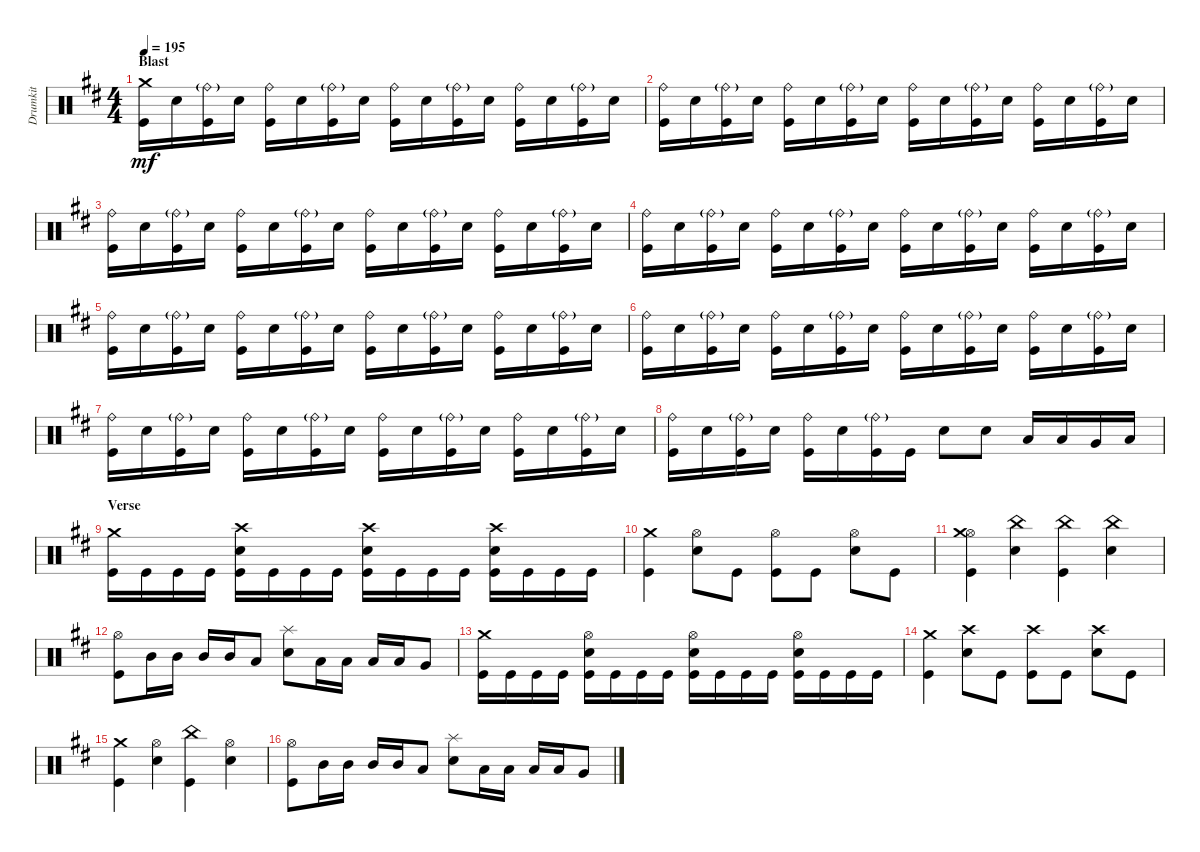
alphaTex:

\track ("Drumkit" "Drumkit") {instrument percussion}
\staff {score}
\articulation defaults
\ts (4 4)
\section ("" "Blast")
\tempo 195
\clef neutral
\ks bminor
("Kick (hit)" "Crash medium (hit)").16{dy mf} "Snare (hit) 2".16 ("Kick (hit)" "Ride (bell)"{g}).16 "Snare (hit) 2".16 ("Kick (hit)" "Ride (bell)").16 "Snare (hit) 2".16 ("Kick (hit)" "Ride (bell)"{g}).16 "Snare (hit) 2".16 ("Kick (hit)" "Ride (bell)").16 "Snare (hit) 2".16 ("Kick (hit)" "Ride (bell)"{g}).16 "Snare (hit) 2".16 ("Kick (hit)" "Ride (bell)").16 "Snare (hit) 2".16 ("Kick (hit)" "Ride (bell)"{g}).16 "Snare (hit) 2".16 |
("Kick (hit)" "Ride (bell)").16 "Snare (hit) 2".16 ("Kick (hit)" "Ride (bell)"{g}).16 "Snare (hit) 2".16 ("Kick (hit)" "Ride (bell)").16 "Snare (hit) 2".16 ("Kick (hit)" "Ride (bell)"{g}).16 "Snare (hit) 2".16 ("Kick (hit)" "Ride (bell)").16 "Snare (hit) 2".16 ("Kick (hit)" "Ride (bell)"{g}).16 "Snare (hit) 2".16 ("Kick (hit)" "Ride (bell)").16 "Snare (hit) 2".16 ("Kick (hit)" "Ride (bell)"{g}).16 "Snare (hit) 2".16 |
("Kick (hit)" "Ride (bell)").16 "Snare (hit) 2".16 ("Kick (hit)" "Ride (bell)"{g}).16 "Snare (hit) 2".16 ("Kick (hit)" "Ride (bell)").16 "Snare (hit) 2".16 ("Kick (hit)" "Ride (bell)"{g}).16 "Snare (hit) 2".16 ("Kick (hit)" "Ride (bell)").16 "Snare (hit) 2".16 ("Kick (hit)" "Ride (bell)"{g}).16 "Snare (hit) 2".16 ("Kick (hit)" "Ride (bell)").16 "Snare (hit) 2".16 ("Kick (hit)" "Ride (bell)"{g}).16 "Snare (hit) 2".16 |
("Kick (hit)" "Ride (bell)").16 "Snare (hit) 2".16 ("Kick (hit)" "Ride (bell)"{g}).16 "Snare (hit) 2".16 ("Kick (hit)" "Ride (bell)").16 "Snare (hit) 2".16 ("Kick (hit)" "Ride (bell)"{g}).16 "Snare (hit) 2".16 ("Kick (hit)" "Ride (bell)").16 "Snare (hit) 2".16 ("Kick (hit)" "Ride (bell)"{g}).16 "Snare (hit) 2".16 ("Kick (hit)" "Ride (bell)").16 "Snare (hit) 2".16 ("Kick (hit)" "Ride (bell)"{g}).16 "Snare (hit) 2".16 |
("Kick (hit)" "Ride (bell)").16 "Snare (hit) 2".16 ("Kick (hit)" "Ride (bell)"{g}).16 "Snare (hit) 2".16 ("Kick (hit)" "Ride (bell)").16 "Snare (hit) 2".16 ("Kick (hit)" "Ride (bell)"{g}).16 "Snare (hit) 2".16 ("Kick (hit)" "Ride (bell)").16 "Snare (hit) 2".16 ("Kick (hit)" "Ride (bell)"{g}).16 "Snare (hit) 2".16 ("Kick (hit)" "Ride (bell)").16 "Snare (hit) 2".16 ("Kick (hit)" "Ride (bell)"{g}).16 "Snare (hit) 2".16 |
("Kick (hit)" "Ride (bell)").16 "Snare (hit) 2".16 ("Kick (hit)" "Ride (bell)"{g}).16 "Snare (hit) 2".16 ("Kick (hit)" "Ride (bell)").16 "Snare (hit) 2".16 ("Kick (hit)" "Ride (bell)"{g}).16 "Snare (hit) 2".16 ("Kick (hit)" "Ride (bell)").16 "Snare (hit) 2".16 ("Kick (hit)" "Ride (bell)"{g}).16 "Snare (hit) 2".16 ("Kick (hit)" "Ride (bell)").16 "Snare (hit) 2".16 ("Kick (hit)" "Ride (bell)"{g}).16 "Snare (hit) 2".16 |
("Kick (hit)" "Ride (bell)").16 "Snare (hit) 2".16 ("Kick (hit)" "Ride (bell)"{g}).16 "Snare (hit) 2".16 ("Kick (hit)" "Ride (bell)").16 "Snare (hit) 2".16 ("Kick (hit)" "Ride (bell)"{g}).16 "Snare (hit) 2".16 ("Kick (hit)" "Ride (bell)").16 "Snare (hit) 2".16 ("Kick (hit)" "Ride (bell)"{g}).16 "Snare (hit) 2".16 ("Kick (hit)" "Ride (bell)").16 "Snare (hit) 2".16 ("Kick (hit)" "Ride (bell)"{g}).16 "Snare (hit) 2".16 |
("Kick (hit)" "Ride (bell)").16 "Snare (hit) 2".16 ("Kick (hit)" "Ride (bell)"{g}).16 "Snare (hit) 2".16 ("Kick (hit)" "Ride (bell)").16 "Snare (hit) 2".16 ("Kick (hit)" "Ride (bell)"{g}).16 "Kick (hit)".16 "Snare (hit) 2".8 "Snare (hit) 2".8 "Low Tom (hit)".16 "Low Tom (hit)".16 "Very Low Tom (hit)".16 "Low Floor Tom (hit)".16 |
\section ("" "Verse")
("Kick (hit)" "Crash medium (hit)").16 "Kick (hit)".16 "Kick (hit)".16 "Kick (hit)".16 ("Kick (hit)" "Snare (hit) 2" "Crash high (hit)").16 "Kick (hit)".16 "Kick (hit)".16 "Kick (hit)".16 ("Kick (hit)" "Snare (hit) 2" "Crash high (hit)").16 "Kick (hit)".16 "Kick (hit)".16 "Kick (hit)".16 ("Kick (hit)" "Snare (hit) 2" "Crash high (hit)").16 "Kick (hit)".16 "Kick (hit)".16 "Kick (hit)".16 |
("Kick (hit)" "Crash medium (hit)").4 ("Snare (hit) 2" "Hi-Hat (open)").8 "Kick (hit)".8 ("Kick (hit)" "Hi-Hat (open)").8 "Kick (hit)".8 ("Snare (hit) 2" "Hi-Hat (open)").8 "Kick (hit)".8 |
("Kick (hit)" "Hi-Hat (open)" "Crash medium (hit)").4 ("Snare (hit) 2" "China (hit)").4 ("Kick (hit)" "China (hit)").4 ("Snare (hit) 2" "China (hit)").4 |
("Kick (hit)" "Hi-Hat (open)").8 "Mid Tom (hit)".16 "Mid Tom (hit)".16 "Mid Tom (hit)".16 "Mid Tom (hit)".16 "Low Tom (hit)".8 ("Snare (hit) 2" "Splash (hit)").8 "Low Tom (hit)".16 "Low Tom (hit)".16 "Low Tom (hit)".16 "Low Tom (hit)".16 "Very Low Tom (hit)".8 |
("Kick (hit)" "Crash medium (hit)").16 "Kick (hit)".16 "Kick (hit)".16 "Kick (hit)".16 ("Kick (hit)" "Snare (hit) 2" "Hi-Hat (open)").16 "Kick (hit)".16 "Kick (hit)".16 "Kick (hit)".16 ("Kick (hit)" "Snare (hit) 2" "Hi-Hat (open)").16 "Kick (hit)".16 "Kick (hit)".16 "Kick (hit)".16 ("Kick (hit)" "Snare (hit) 2" "Hi-Hat (open)").16 "Kick (hit)".16 "Kick (hit)".16 "Kick (hit)".16 |
("Kick (hit)" "Crash medium (hit)").4 ("Snare (hit) 2" "Crash high (hit)").8 "Kick (hit)".8 ("Kick (hit)" "Crash high (hit)").8 "Kick (hit)".8 ("Snare (hit) 2" "Crash high (hit)").8 "Kick (hit)".8 |
("Kick (hit)" "Crash medium (hit)").4 ("Snare (hit) 2" "Hi-Hat (open)").4 ("Kick (hit)" "China (hit)").4 ("Snare (hit) 2" "Hi-Hat (open)").4 |
("Kick (hit)" "Hi-Hat (open)").8 "Mid Tom (hit)".16 "Mid Tom (hit)".16 "Mid Tom (hit)".16 "Mid Tom (hit)".16 "Low Tom (hit)".8 ("Snare (hit) 2" "Splash (hit)").8 "Low Tom (hit)".16 "Low Tom (hit)".16 "Low Tom (hit)".16 "Low Tom (hit)".16 "Very Low Tom (hit)".8
